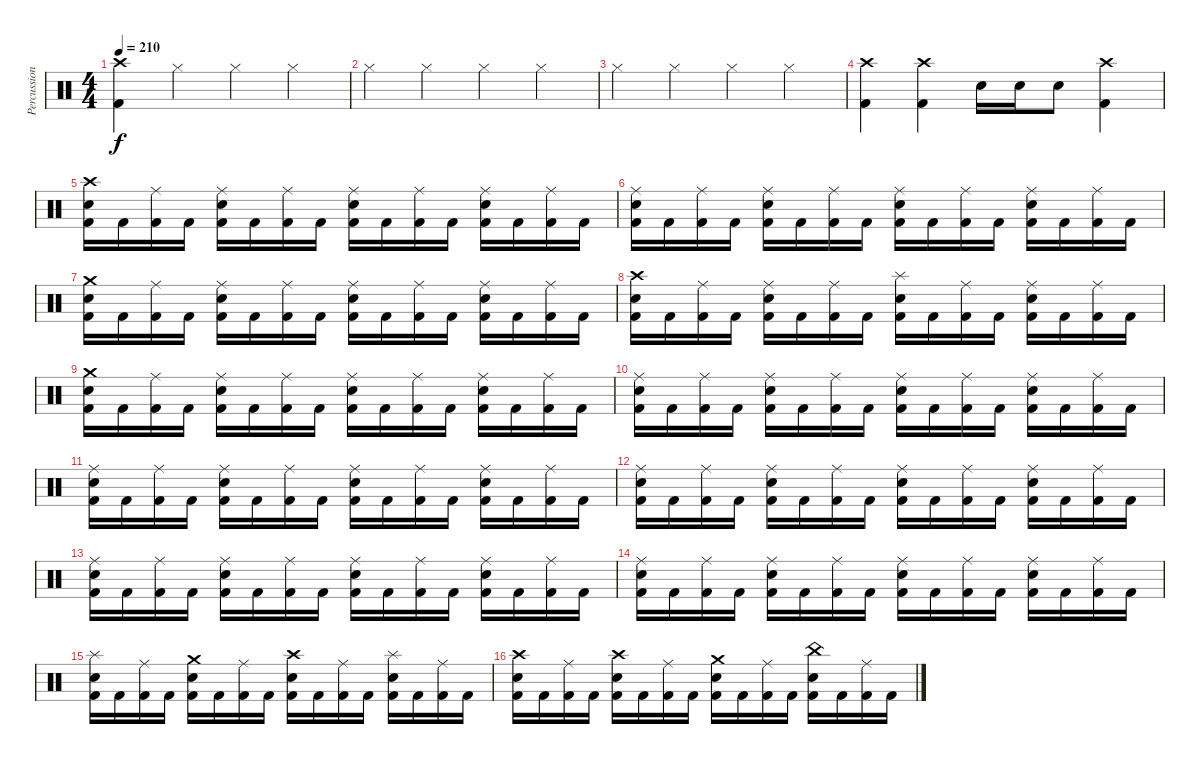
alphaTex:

\track ("Percussions" "Percussion") {instrument percussion}
\staff {score}
\articulation defaults
\ts (4 4)
\tempo 210
\clef neutral
\ks c
("Crash high (hit)" "Kick (hit) 2").4{dy f} "Hi-Hat (closed)".4 "Hi-Hat (closed)".4 "Hi-Hat (closed)".4 |
"Hi-Hat (closed)".4 "Hi-Hat (closed)".4 "Hi-Hat (closed)".4 "Hi-Hat (closed)".4 |
"Hi-Hat (closed)".4 "Hi-Hat (closed)".4 "Hi-Hat (closed)".4 "Hi-Hat (closed)".4 |
("Crash high (hit)" "Kick (hit) 2").4 ("Crash high (hit)" "Kick (hit) 2").4 "Electric Snare (hit)".16 "Electric Snare (hit)".16 "Electric Snare (hit)".8 ("Crash high (hit)" "Kick (hit) 2").4 |
("Crash high (hit)" "Electric Snare (hit)" "Kick (hit) 2").16 "Kick (hit) 2".16 ("Ride (middle)" "Kick (hit) 2").16 "Kick (hit) 2".16 ("Ride (middle)" "Electric Snare (hit)" "Kick (hit) 2").16 "Kick (hit) 2".16 ("Ride (middle)" "Kick (hit) 2").16 "Kick (hit) 2".16 ("Ride (middle)" "Electric Snare (hit)" "Kick (hit) 2").16 "Kick (hit) 2".16 ("Ride (middle)" "Kick (hit) 2").16 "Kick (hit) 2".16 ("Ride (middle)" "Electric Snare (hit)" "Kick (hit) 2").16 "Kick (hit) 2".16 ("Ride (middle)" "Kick (hit) 2").16 "Kick (hit) 2".16 |
("Ride (middle)" "Electric Snare (hit)" "Kick (hit) 2").16 "Kick (hit) 2".16 ("Ride (middle)" "Kick (hit) 2").16 "Kick (hit) 2".16 ("Ride (middle)" "Electric Snare (hit)" "Kick (hit) 2").16 "Kick (hit) 2".16 ("Ride (middle)" "Kick (hit) 2").16 "Kick (hit) 2".16 ("Ride (middle)" "Electric Snare (hit)" "Kick (hit) 2").16 "Kick (hit) 2".16 ("Ride (middle)" "Kick (hit) 2").16 "Kick (hit) 2".16 ("Ride (middle)" "Electric Snare (hit)" "Kick (hit) 2").16 "Kick (hit) 2".16 ("Ride (middle)" "Kick (hit) 2").16 "Kick (hit) 2".16 |
("Crash medium (hit)" "Electric Snare (hit)" "Kick (hit) 2").16 "Kick (hit) 2".16 ("Ride (middle)" "Kick (hit) 2").16 "Kick (hit) 2".16 ("Ride (middle)" "Electric Snare (hit)" "Kick (hit) 2").16 "Kick (hit) 2".16 ("Ride (middle)" "Kick (hit) 2").16 "Kick (hit) 2".16 ("Ride (middle)" "Electric Snare (hit)" "Kick (hit) 2").16 "Kick (hit) 2".16 ("Ride (middle)" "Kick (hit) 2").16 "Kick (hit) 2".16 ("Ride (middle)" "Electric Snare (hit)" "Kick (hit) 2").16 "Kick (hit) 2".16 ("Ride (middle)" "Kick (hit) 2").16 "Kick (hit) 2".16 |
("Crash high (hit)" "Electric Snare (hit)" "Kick (hit) 2").16 "Kick (hit) 2".16 ("Ride (middle)" "Kick (hit) 2").16 "Kick (hit) 2".16 ("Ride (middle)" "Electric Snare (hit)" "Kick (hit) 2").16 "Kick (hit) 2".16 ("Ride (middle)" "Kick (hit) 2").16 "Kick (hit) 2".16 ("Splash (hit)" "Electric Snare (hit)" "Kick (hit) 2").16 "Kick (hit) 2".16 ("Ride (middle)" "Kick (hit) 2").16 "Kick (hit) 2".16 ("Ride (middle)" "Electric Snare (hit)" "Kick (hit) 2").16 "Kick (hit) 2".16 ("Ride (middle)" "Kick (hit) 2").16 "Kick (hit) 2".16 |
("Crash medium (hit)" "Electric Snare (hit)" "Kick (hit) 2").16 "Kick (hit) 2".16 ("Ride (middle)" "Kick (hit) 2").16 "Kick (hit) 2".16 ("Ride (middle)" "Electric Snare (hit)" "Kick (hit) 2").16 "Kick (hit) 2".16 ("Ride (middle)" "Kick (hit) 2").16 "Kick (hit) 2".16 ("Ride (middle)" "Electric Snare (hit)" "Kick (hit) 2").16 "Kick (hit) 2".16 ("Ride (middle)" "Kick (hit) 2").16 "Kick (hit) 2".16 ("Ride (middle)" "Electric Snare (hit)" "Kick (hit) 2").16 "Kick (hit) 2".16 ("Ride (middle)" "Kick (hit) 2").16 "Kick (hit) 2".16 |
("Ride (middle)" "Electric Snare (hit)" "Kick (hit) 2").16 "Kick (hit) 2".16 ("Ride (middle)" "Kick (hit) 2").16 "Kick (hit) 2".16 ("Ride (middle)" "Electric Snare (hit)" "Kick (hit) 2").16 "Kick (hit) 2".16 ("Ride (middle)" "Kick (hit) 2").16 "Kick (hit) 2".16 ("Ride (middle)" "Electric Snare (hit)" "Kick (hit) 2").16 "Kick (hit) 2".16 ("Ride (middle)" "Kick (hit) 2").16 "Kick (hit) 2".16 ("Ride (middle)" "Electric Snare (hit)" "Kick (hit) 2").16 "Kick (hit) 2".16 ("Ride (middle)" "Kick (hit) 2").16 "Kick (hit) 2".16 |
("Ride (middle)" "Electric Snare (hit)" "Kick (hit) 2").16 "Kick (hit) 2".16 ("Ride (middle)" "Kick (hit) 2").16 "Kick (hit) 2".16 ("Ride (middle)" "Electric Snare (hit)" "Kick (hit) 2").16 "Kick (hit) 2".16 ("Ride (middle)" "Kick (hit) 2").16 "Kick (hit) 2".16 ("Ride (middle)" "Electric Snare (hit)" "Kick (hit) 2").16 "Kick (hit) 2".16 ("Ride (middle)" "Kick (hit) 2").16 "Kick (hit) 2".16 ("Ride (middle)" "Electric Snare (hit)" "Kick (hit) 2").16 "Kick (hit) 2".16 ("Ride (middle)" "Kick (hit) 2").16 "Kick (hit) 2".16 |
("Ride (middle)" "Electric Snare (hit)" "Kick (hit) 2").16 "Kick (hit) 2".16 ("Ride (middle)" "Kick (hit) 2").16 "Kick (hit) 2".16 ("Ride (middle)" "Electric Snare (hit)" "Kick (hit) 2").16 "Kick (hit) 2".16 ("Ride (middle)" "Kick (hit) 2").16 "Kick (hit) 2".16 ("Ride (middle)" "Electric Snare (hit)" "Kick (hit) 2").16 "Kick (hit) 2".16 ("Ride (middle)" "Kick (hit) 2").16 "Kick (hit) 2".16 ("Ride (middle)" "Electric Snare (hit)" "Kick (hit) 2").16 "Kick (hit) 2".16 ("Ride (middle)" "Kick (hit) 2").16 "Kick (hit) 2".16 |
("Ride (middle)" "Electric Snare (hit)" "Kick (hit) 2").16 "Kick (hit) 2".16 ("Ride (middle)" "Kick (hit) 2").16 "Kick (hit) 2".16 ("Ride (middle)" "Electric Snare (hit)" "Kick (hit) 2").16 "Kick (hit) 2".16 ("Ride (middle)" "Kick (hit) 2").16 "Kick (hit) 2".16 ("Ride (middle)" "Electric Snare (hit)" "Kick (hit) 2").16 "Kick (hit) 2".16 ("Ride (middle)" "Kick (hit) 2").16 "Kick (hit) 2".16 ("Ride (middle)" "Electric Snare (hit)" "Kick (hit) 2").16 "Kick (hit) 2".16 ("Ride (middle)" "Kick (hit) 2").16 "Kick (hit) 2".16 |
("Ride (middle)" "Electric Snare (hit)" "Kick (hit) 2").16 "Kick (hit) 2".16 ("Ride (middle)" "Kick (hit) 2").16 "Kick (hit) 2".16 ("Ride (middle)" "Electric Snare (hit)" "Kick (hit) 2").16 "Kick (hit) 2".16 ("Ride (middle)" "Kick (hit) 2").16 "Kick (hit) 2".16 ("Ride (middle)" "Electric Snare (hit)" "Kick (hit) 2").16 "Kick (hit) 2".16 ("Ride (middle)" "Kick (hit) 2").16 "Kick (hit) 2".16 ("Ride (middle)" "Electric Snare (hit)" "Kick (hit) 2").16 "Kick (hit) 2".16 ("Ride (middle)" "Kick (hit) 2").16 "Kick (hit) 2".16 |
("Splash (hit)" "Electric Snare (hit)" "Kick (hit) 2").16 "Kick (hit) 2".16 ("Ride (middle)" "Kick (hit) 2").16 "Kick (hit) 2".16 ("Crash medium (hit)" "Electric Snare (hit)" "Kick (hit) 2").16 "Kick (hit) 2".16 ("Ride (middle)" "Kick (hit) 2").16 "Kick (hit) 2".16 ("Crash high (hit)" "Electric Snare (hit)" "Kick (hit) 2").16 "Kick (hit) 2".16 ("Ride (middle)" "Kick (hit) 2").16 "Kick (hit) 2".16 ("Splash (hit)" "Electric Snare (hit)" "Kick (hit) 2").16 "Kick (hit) 2".16 ("Ride (middle)" "Kick (hit) 2").16 "Kick (hit) 2".16 |
("Crash high (hit)" "Electric Snare (hit)" "Kick (hit) 2").16 "Kick (hit) 2".16 ("Ride (middle)" "Kick (hit) 2").16 "Kick (hit) 2".16 ("Crash high (hit)" "Electric Snare (hit)" "Kick (hit) 2").16 "Kick (hit) 2".16 ("Ride (middle)" "Kick (hit) 2").16 "Kick (hit) 2".16 ("Crash medium (hit)" "Electric Snare (hit)" "Kick (hit) 2").16 "Kick (hit) 2".16 ("Ride (middle)" "Kick (hit) 2").16 "Kick (hit) 2".16 ("China (hit)" "Electric Snare (hit)" "Kick (hit) 2").16 "Kick (hit) 2".16 ("Ride (middle)" "Kick (hit) 2").16 "Kick (hit) 2".16
